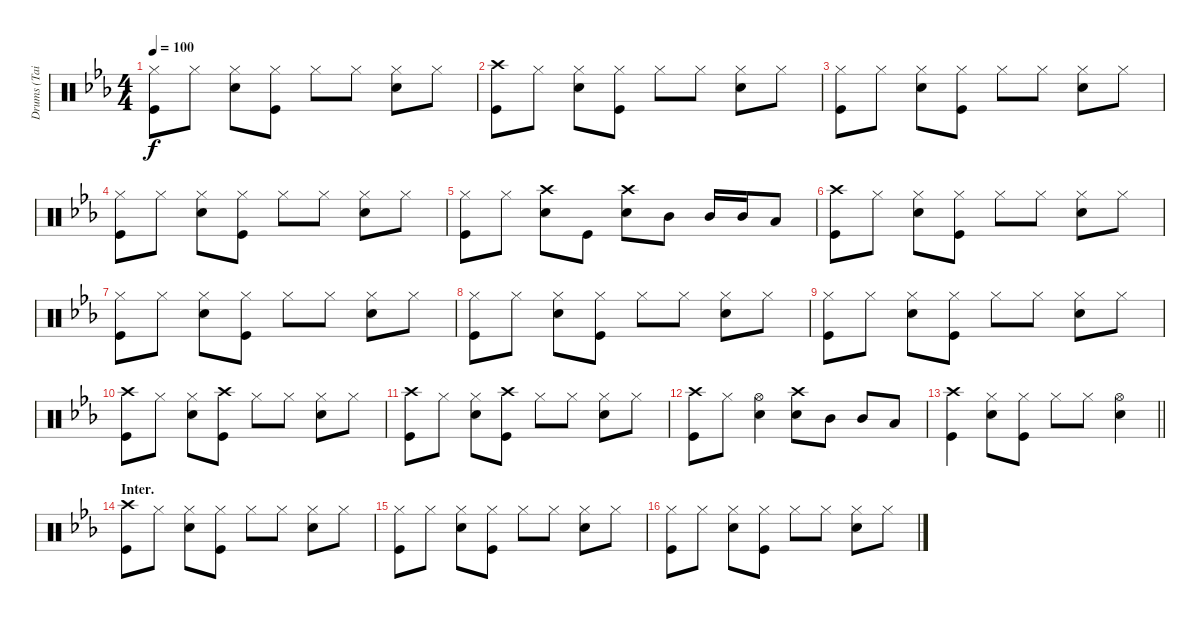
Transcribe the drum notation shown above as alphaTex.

\track ("Drums (Tainaka Ritsu)" "Drums (Tai") {instrument percussion}
\staff {score}
\articulation defaults
\ts (4 4)
\tempo 100
\clef neutral
\ks eb
("Hi-Hat (closed)" "Kick (hit)").8{dy f} "Hi-Hat (closed)".8 ("Hi-Hat (closed)" "Snare (hit) 2").8 ("Hi-Hat (closed)" "Kick (hit)").8 "Hi-Hat (closed)".8 "Hi-Hat (closed)".8 ("Hi-Hat (closed)" "Snare (hit) 2").8 "Hi-Hat (closed)".8 |
("Crash high (hit)" "Kick (hit)").8 "Hi-Hat (closed)".8 ("Hi-Hat (closed)" "Snare (hit) 2").8 ("Hi-Hat (closed)" "Kick (hit)").8 "Hi-Hat (closed)".8 "Hi-Hat (closed)".8 ("Hi-Hat (closed)" "Snare (hit) 2").8 "Hi-Hat (closed)".8 |
("Hi-Hat (closed)" "Kick (hit)").8 "Hi-Hat (closed)".8 ("Hi-Hat (closed)" "Snare (hit) 2").8 ("Hi-Hat (closed)" "Kick (hit)").8 "Hi-Hat (closed)".8 "Hi-Hat (closed)".8 ("Hi-Hat (closed)" "Snare (hit) 2").8 "Hi-Hat (closed)".8 |
("Hi-Hat (closed)" "Kick (hit)").8 "Hi-Hat (closed)".8 ("Hi-Hat (closed)" "Snare (hit) 2").8 ("Hi-Hat (closed)" "Kick (hit)").8 "Hi-Hat (closed)".8 "Hi-Hat (closed)".8 ("Hi-Hat (closed)" "Snare (hit) 2").8 "Hi-Hat (closed)".8 |
("Hi-Hat (closed)" "Kick (hit)").8 "Hi-Hat (closed)".8 ("Crash high (hit)" "Snare (hit) 2").8 "Kick (hit)".8 ("Crash high (hit)" "Snare (hit) 2").8 "Mid Tom (hit)".8 "Mid Tom (hit)".16 "Mid Tom (hit)".16 "Low Tom (hit)".8 |
("Crash high (hit)" "Kick (hit)").8 "Hi-Hat (closed)".8 ("Hi-Hat (closed)" "Snare (hit) 2").8 ("Hi-Hat (closed)" "Kick (hit)").8 "Hi-Hat (closed)".8 "Hi-Hat (closed)".8 ("Hi-Hat (closed)" "Snare (hit) 2").8 "Hi-Hat (closed)".8 |
("Hi-Hat (closed)" "Kick (hit)").8 "Hi-Hat (closed)".8 ("Hi-Hat (closed)" "Snare (hit) 2").8 ("Hi-Hat (closed)" "Kick (hit)").8 "Hi-Hat (closed)".8 "Hi-Hat (closed)".8 ("Hi-Hat (closed)" "Snare (hit) 2").8 "Hi-Hat (closed)".8 |
("Hi-Hat (closed)" "Kick (hit)").8 "Hi-Hat (closed)".8 ("Hi-Hat (closed)" "Snare (hit) 2").8 ("Hi-Hat (closed)" "Kick (hit)").8 "Hi-Hat (closed)".8 "Hi-Hat (closed)".8 ("Hi-Hat (closed)" "Snare (hit) 2").8 "Hi-Hat (closed)".8 |
("Hi-Hat (closed)" "Kick (hit)").8 "Hi-Hat (closed)".8 ("Hi-Hat (closed)" "Snare (hit) 2").8 ("Hi-Hat (closed)" "Kick (hit)").8 "Hi-Hat (closed)".8 "Hi-Hat (closed)".8 ("Hi-Hat (closed)" "Snare (hit) 2").8 "Hi-Hat (closed)".8 |
("Crash high (hit)" "Kick (hit)").8 "Hi-Hat (closed)".8 ("Hi-Hat (closed)" "Snare (hit) 2").8 ("Crash high (hit)" "Kick (hit)").8 "Hi-Hat (closed)".8 "Hi-Hat (closed)".8 ("Hi-Hat (closed)" "Snare (hit) 2").8 "Hi-Hat (closed)".8 |
("Crash high (hit)" "Kick (hit)").8 "Hi-Hat (closed)".8 ("Hi-Hat (closed)" "Snare (hit) 2").8 ("Crash high (hit)" "Kick (hit)").8 "Hi-Hat (closed)".8 "Hi-Hat (closed)".8 ("Hi-Hat (closed)" "Snare (hit) 2").8 "Hi-Hat (closed)".8 |
("Crash high (hit)" "Kick (hit)").8 "Hi-Hat (closed)".8 ("Hi-Hat (open)" "Snare (hit) 2").4 ("Crash high (hit)" "Snare (hit) 2").8 "Mid Tom (hit)".8 "Mid Tom (hit)".8 "Low Tom (hit)".8 |
\barLineRight lightlight
("Crash high (hit)" "Kick (hit)").4 ("Hi-Hat (closed)" "Snare (hit) 2").8 ("Hi-Hat (closed)" "Kick (hit)").8 "Hi-Hat (closed)".8 "Hi-Hat (closed)".8 ("Hi-Hat (open)" "Snare (hit) 2").4 |
\section ("" "Inter.")
("Crash high (hit)" "Kick (hit)").8 "Hi-Hat (closed)".8 ("Hi-Hat (closed)" "Snare (hit) 2").8 ("Hi-Hat (closed)" "Kick (hit)").8 "Hi-Hat (closed)".8 "Hi-Hat (closed)".8 ("Hi-Hat (closed)" "Snare (hit) 2").8 "Hi-Hat (closed)".8 |
("Hi-Hat (closed)" "Kick (hit)").8 "Hi-Hat (closed)".8 ("Hi-Hat (closed)" "Snare (hit) 2").8 ("Hi-Hat (closed)" "Kick (hit)").8 "Hi-Hat (closed)".8 "Hi-Hat (closed)".8 ("Hi-Hat (closed)" "Snare (hit) 2").8 "Hi-Hat (closed)".8 |
("Hi-Hat (closed)" "Kick (hit)").8 "Hi-Hat (closed)".8 ("Hi-Hat (closed)" "Snare (hit) 2").8 ("Hi-Hat (closed)" "Kick (hit)").8 "Hi-Hat (closed)".8 "Hi-Hat (closed)".8 ("Hi-Hat (closed)" "Snare (hit) 2").8 "Hi-Hat (closed)".8
